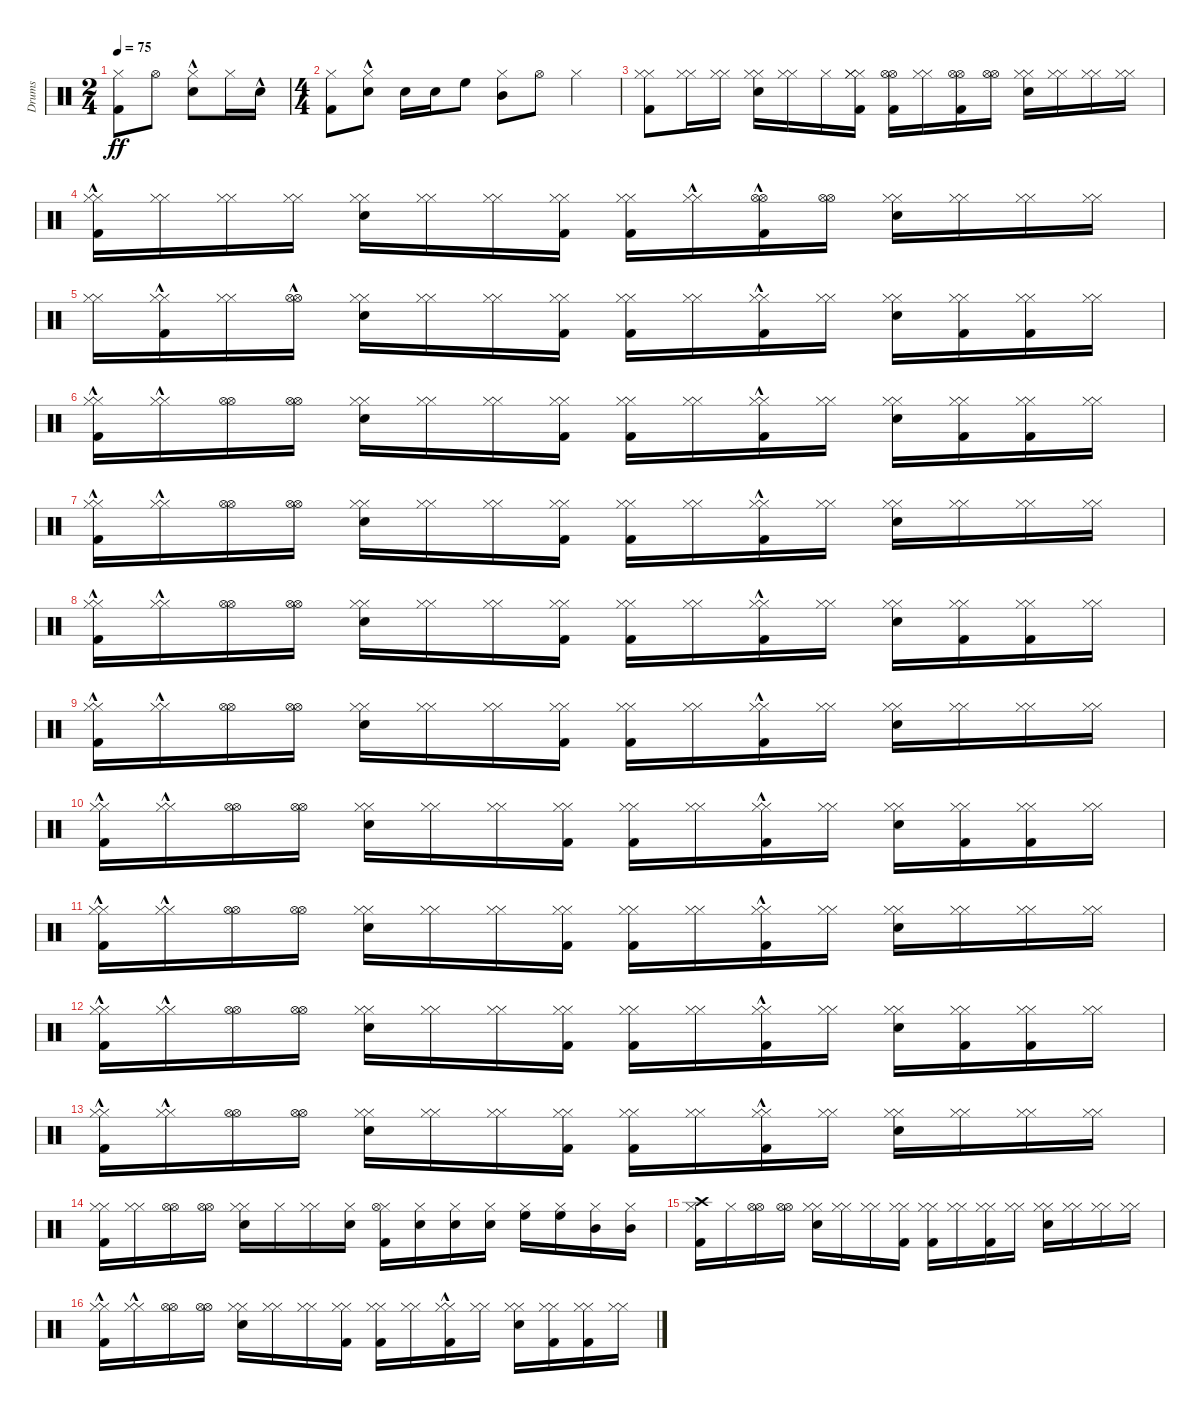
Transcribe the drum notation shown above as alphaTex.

\track ("Drums" "Drums") {instrument percussion}
\staff {score}
\articulation defaults
\ts (2 4)
\tempo 75
\clef neutral
\ks c
("Kick (hit) 2" "Hi-Hat (closed)").8{dy ff} "Hi-Hat (open)".8 ("Hi-Hat (closed)" "Snare (hit) 2"{hac}).8 "Hi-Hat (closed)".16 "Snare (hit) 2"{hac}.16 |
\ts (4 4)
("Kick (hit) 2" "Hi-Hat (closed)").8 ("Snare (hit) 2" "Hi-Hat (closed)"{hac}).8 "Snare (hit) 2".16 "Snare (hit) 2".16 "High Floor Tom (hit)".8 ("Mid Tom (hit)" "Hi-Hat (closed)").8 "Hi-Hat (open)".8 "Hi-Hat (closed)".4 |
("Hi-Hat (closed)" "Kick (hit) 2" "Hi-Hat (closed)").8 ("Hi-Hat (closed)" "Hi-Hat (closed)").16 ("Hi-Hat (closed)" "Hi-Hat (closed)").16 ("Hi-Hat (closed)" "Hi-Hat (closed)" "Snare (hit) 2").16 ("Hi-Hat (closed)" "Hi-Hat (closed)").16 "Hi-Hat (closed)".16 ("Hi-Hat (closed)" "Hi-Hat (closed)" "Kick (hit) 2" "Hi-Hat (closed)").16 ("Hi-Hat (open)" "Kick (hit) 2" "Hi-Hat (open)").16 ("Hi-Hat (closed)" "Hi-Hat (closed)").16 ("Hi-Hat (open)" "Kick (hit) 2" "Hi-Hat (open)").16 ("Hi-Hat (open)" "Hi-Hat (open)").16 ("Hi-Hat (closed)" "Snare (hit) 2" "Hi-Hat (closed)").16 ("Hi-Hat (closed)" "Hi-Hat (closed)").16 ("Hi-Hat (closed)" "Hi-Hat (closed)").16 ("Hi-Hat (closed)" "Hi-Hat (closed)").16 |
("Hi-Hat (closed)" "Kick (hit) 2"{hac} "Hi-Hat (closed)").16 ("Hi-Hat (closed)" "Hi-Hat (closed)").16 ("Hi-Hat (closed)" "Hi-Hat (closed)").16 ("Hi-Hat (closed)" "Hi-Hat (closed)").16 ("Hi-Hat (closed)" "Snare (hit) 2" "Hi-Hat (closed)").16 ("Hi-Hat (closed)" "Hi-Hat (closed)").16 ("Hi-Hat (closed)" "Hi-Hat (closed)").16 ("Hi-Hat (closed)" "Kick (hit) 2" "Hi-Hat (closed)").16 ("Hi-Hat (closed)" "Kick (hit) 2" "Hi-Hat (closed)").16 ("Hi-Hat (closed)"{hac} "Hi-Hat (closed)"{hac}).16 ("Kick (hit) 2"{hac} "Hi-Hat (open)" "Hi-Hat (open)").16 ("Hi-Hat (open)" "Hi-Hat (open)").16 ("Snare (hit) 2" "Hi-Hat (closed)" "Hi-Hat (closed)").16 ("Hi-Hat (closed)" "Hi-Hat (closed)").16 ("Hi-Hat (closed)" "Hi-Hat (closed)").16 ("Hi-Hat (closed)" "Hi-Hat (closed)").16 |
("Hi-Hat (closed)" "Hi-Hat (closed)").16 ("Hi-Hat (closed)" "Kick (hit) 2"{hac} "Hi-Hat (closed)").16 ("Hi-Hat (closed)" "Hi-Hat (closed)").16 ("Hi-Hat (open)"{hac} "Hi-Hat (open)"{hac}).16 ("Hi-Hat (closed)" "Snare (hit) 2" "Hi-Hat (closed)").16 ("Hi-Hat (closed)" "Hi-Hat (closed)").16 ("Hi-Hat (closed)" "Hi-Hat (closed)").16 ("Hi-Hat (closed)" "Kick (hit) 2" "Hi-Hat (closed)").16 ("Hi-Hat (closed)" "Kick (hit) 2" "Hi-Hat (closed)").16 ("Hi-Hat (closed)" "Hi-Hat (closed)").16 ("Hi-Hat (closed)" "Kick (hit) 2"{hac} "Hi-Hat (closed)").16 ("Hi-Hat (closed)" "Hi-Hat (closed)").16 ("Snare (hit) 2" "Hi-Hat (closed)" "Hi-Hat (closed)").16 ("Hi-Hat (closed)" "Kick (hit) 2" "Hi-Hat (closed)").16 ("Kick (hit) 2" "Hi-Hat (closed)" "Hi-Hat (closed)").16 ("Hi-Hat (closed)" "Hi-Hat (closed)").16 |
("Hi-Hat (closed)" "Kick (hit) 2"{hac} "Hi-Hat (closed)").16 ("Hi-Hat (closed)"{hac} "Hi-Hat (closed)"{hac}).16 ("Hi-Hat (open)" "Hi-Hat (open)").16 ("Hi-Hat (open)" "Hi-Hat (open)").16 ("Hi-Hat (closed)" "Snare (hit) 2" "Hi-Hat (closed)").16 ("Hi-Hat (closed)" "Hi-Hat (closed)").16 ("Hi-Hat (closed)" "Hi-Hat (closed)").16 ("Hi-Hat (closed)" "Kick (hit) 2" "Hi-Hat (closed)").16 ("Hi-Hat (closed)" "Kick (hit) 2" "Hi-Hat (closed)").16 ("Hi-Hat (closed)" "Hi-Hat (closed)").16 ("Hi-Hat (closed)" "Kick (hit) 2"{hac} "Hi-Hat (closed)").16 ("Hi-Hat (closed)" "Hi-Hat (closed)").16 ("Snare (hit) 2" "Hi-Hat (closed)" "Hi-Hat (closed)").16 ("Hi-Hat (closed)" "Kick (hit) 2" "Hi-Hat (closed)").16 ("Kick (hit) 2" "Hi-Hat (closed)" "Hi-Hat (closed)").16 ("Hi-Hat (closed)" "Hi-Hat (closed)").16 |
("Hi-Hat (closed)" "Kick (hit) 2"{hac} "Hi-Hat (closed)").16 ("Hi-Hat (closed)"{hac} "Hi-Hat (closed)"{hac}).16 ("Hi-Hat (open)" "Hi-Hat (open)").16 ("Hi-Hat (open)" "Hi-Hat (open)").16 ("Hi-Hat (closed)" "Snare (hit) 2" "Hi-Hat (closed)").16 ("Hi-Hat (closed)" "Hi-Hat (closed)").16 ("Hi-Hat (closed)" "Hi-Hat (closed)").16 ("Hi-Hat (closed)" "Kick (hit) 2" "Hi-Hat (closed)").16 ("Hi-Hat (closed)" "Kick (hit) 2" "Hi-Hat (closed)").16 ("Hi-Hat (closed)" "Hi-Hat (closed)").16 ("Kick (hit) 2"{hac} "Hi-Hat (closed)" "Hi-Hat (closed)").16 ("Hi-Hat (closed)" "Hi-Hat (closed)").16 ("Snare (hit) 2" "Hi-Hat (closed)" "Hi-Hat (closed)").16 ("Hi-Hat (closed)" "Hi-Hat (closed)").16 ("Hi-Hat (closed)" "Hi-Hat (closed)").16 ("Hi-Hat (closed)" "Hi-Hat (closed)").16 |
("Hi-Hat (closed)" "Kick (hit) 2"{hac} "Hi-Hat (closed)").16 ("Hi-Hat (closed)"{hac} "Hi-Hat (closed)"{hac}).16 ("Hi-Hat (open)" "Hi-Hat (open)").16 ("Hi-Hat (open)" "Hi-Hat (open)").16 ("Hi-Hat (closed)" "Snare (hit) 2" "Hi-Hat (closed)").16 ("Hi-Hat (closed)" "Hi-Hat (closed)").16 ("Hi-Hat (closed)" "Hi-Hat (closed)").16 ("Hi-Hat (closed)" "Kick (hit) 2" "Hi-Hat (closed)").16 ("Hi-Hat (closed)" "Kick (hit) 2" "Hi-Hat (closed)").16 ("Hi-Hat (closed)" "Hi-Hat (closed)").16 ("Hi-Hat (closed)" "Kick (hit) 2"{hac} "Hi-Hat (closed)").16 ("Hi-Hat (closed)" "Hi-Hat (closed)").16 ("Snare (hit) 2" "Hi-Hat (closed)" "Hi-Hat (closed)").16 ("Hi-Hat (closed)" "Kick (hit) 2" "Hi-Hat (closed)").16 ("Kick (hit) 2" "Hi-Hat (closed)" "Hi-Hat (closed)").16 ("Hi-Hat (closed)" "Hi-Hat (closed)").16 |
("Hi-Hat (closed)" "Kick (hit) 2"{hac} "Hi-Hat (closed)").16 ("Hi-Hat (closed)"{hac} "Hi-Hat (closed)"{hac}).16 ("Hi-Hat (open)" "Hi-Hat (open)").16 ("Hi-Hat (open)" "Hi-Hat (open)").16 ("Hi-Hat (closed)" "Snare (hit) 2" "Hi-Hat (closed)").16 ("Hi-Hat (closed)" "Hi-Hat (closed)").16 ("Hi-Hat (closed)" "Hi-Hat (closed)").16 ("Hi-Hat (closed)" "Kick (hit) 2" "Hi-Hat (closed)").16 ("Hi-Hat (closed)" "Kick (hit) 2" "Hi-Hat (closed)").16 ("Hi-Hat (closed)" "Hi-Hat (closed)").16 ("Kick (hit) 2"{hac} "Hi-Hat (closed)" "Hi-Hat (closed)").16 ("Hi-Hat (closed)" "Hi-Hat (closed)").16 ("Snare (hit) 2" "Hi-Hat (closed)" "Hi-Hat (closed)").16 ("Hi-Hat (closed)" "Hi-Hat (closed)").16 ("Hi-Hat (closed)" "Hi-Hat (closed)").16 ("Hi-Hat (closed)" "Hi-Hat (closed)").16 |
("Hi-Hat (closed)" "Kick (hit) 2"{hac} "Hi-Hat (closed)").16 ("Hi-Hat (closed)"{hac} "Hi-Hat (closed)"{hac}).16 ("Hi-Hat (open)" "Hi-Hat (open)").16 ("Hi-Hat (open)" "Hi-Hat (open)").16 ("Hi-Hat (closed)" "Snare (hit) 2" "Hi-Hat (closed)").16 ("Hi-Hat (closed)" "Hi-Hat (closed)").16 ("Hi-Hat (closed)" "Hi-Hat (closed)").16 ("Hi-Hat (closed)" "Kick (hit) 2" "Hi-Hat (closed)").16 ("Hi-Hat (closed)" "Kick (hit) 2" "Hi-Hat (closed)").16 ("Hi-Hat (closed)" "Hi-Hat (closed)").16 ("Hi-Hat (closed)" "Kick (hit) 2"{hac} "Hi-Hat (closed)").16 ("Hi-Hat (closed)" "Hi-Hat (closed)").16 ("Snare (hit) 2" "Hi-Hat (closed)" "Hi-Hat (closed)").16 ("Hi-Hat (closed)" "Kick (hit) 2" "Hi-Hat (closed)").16 ("Kick (hit) 2" "Hi-Hat (closed)" "Hi-Hat (closed)").16 ("Hi-Hat (closed)" "Hi-Hat (closed)").16 |
("Hi-Hat (closed)" "Kick (hit) 2"{hac} "Hi-Hat (closed)").16 ("Hi-Hat (closed)"{hac} "Hi-Hat (closed)"{hac}).16 ("Hi-Hat (open)" "Hi-Hat (open)").16 ("Hi-Hat (open)" "Hi-Hat (open)").16 ("Hi-Hat (closed)" "Snare (hit) 2" "Hi-Hat (closed)").16 ("Hi-Hat (closed)" "Hi-Hat (closed)").16 ("Hi-Hat (closed)" "Hi-Hat (closed)").16 ("Hi-Hat (closed)" "Kick (hit) 2" "Hi-Hat (closed)").16 ("Hi-Hat (closed)" "Kick (hit) 2" "Hi-Hat (closed)").16 ("Hi-Hat (closed)" "Hi-Hat (closed)").16 ("Kick (hit) 2"{hac} "Hi-Hat (closed)" "Hi-Hat (closed)").16 ("Hi-Hat (closed)" "Hi-Hat (closed)").16 ("Snare (hit) 2" "Hi-Hat (closed)" "Hi-Hat (closed)").16 ("Hi-Hat (closed)" "Hi-Hat (closed)").16 ("Hi-Hat (closed)" "Hi-Hat (closed)").16 ("Hi-Hat (closed)" "Hi-Hat (closed)").16 |
("Hi-Hat (closed)" "Kick (hit) 2"{hac} "Hi-Hat (closed)").16 ("Hi-Hat (closed)"{hac} "Hi-Hat (closed)"{hac}).16 ("Hi-Hat (open)" "Hi-Hat (open)").16 ("Hi-Hat (open)" "Hi-Hat (open)").16 ("Hi-Hat (closed)" "Snare (hit) 2" "Hi-Hat (closed)").16 ("Hi-Hat (closed)" "Hi-Hat (closed)").16 ("Hi-Hat (closed)" "Hi-Hat (closed)").16 ("Hi-Hat (closed)" "Kick (hit) 2" "Hi-Hat (closed)").16 ("Hi-Hat (closed)" "Kick (hit) 2" "Hi-Hat (closed)").16 ("Hi-Hat (closed)" "Hi-Hat (closed)").16 ("Hi-Hat (closed)" "Kick (hit) 2"{hac} "Hi-Hat (closed)").16 ("Hi-Hat (closed)" "Hi-Hat (closed)").16 ("Snare (hit) 2" "Hi-Hat (closed)" "Hi-Hat (closed)").16 ("Hi-Hat (closed)" "Kick (hit) 2" "Hi-Hat (closed)").16 ("Kick (hit) 2" "Hi-Hat (closed)" "Hi-Hat (closed)").16 ("Hi-Hat (closed)" "Hi-Hat (closed)").16 |
("Hi-Hat (closed)" "Kick (hit) 2"{hac} "Hi-Hat (closed)").16 ("Hi-Hat (closed)"{hac} "Hi-Hat (closed)"{hac}).16 ("Hi-Hat (open)" "Hi-Hat (open)").16 ("Hi-Hat (open)" "Hi-Hat (open)").16 ("Hi-Hat (closed)" "Snare (hit) 2" "Hi-Hat (closed)").16 ("Hi-Hat (closed)" "Hi-Hat (closed)").16 ("Hi-Hat (closed)" "Hi-Hat (closed)").16 ("Hi-Hat (closed)" "Kick (hit) 2" "Hi-Hat (closed)").16 ("Hi-Hat (closed)" "Kick (hit) 2" "Hi-Hat (closed)").16 ("Hi-Hat (closed)" "Hi-Hat (closed)").16 ("Kick (hit) 2"{hac} "Hi-Hat (closed)" "Hi-Hat (closed)").16 ("Hi-Hat (closed)" "Hi-Hat (closed)").16 ("Snare (hit) 2" "Hi-Hat (closed)" "Hi-Hat (closed)").16 ("Hi-Hat (closed)" "Hi-Hat (closed)").16 ("Hi-Hat (closed)" "Hi-Hat (closed)").16 ("Hi-Hat (closed)" "Hi-Hat (closed)").16 |
("Hi-Hat (closed)" "Kick (hit) 2" "Hi-Hat (closed)").16 ("Hi-Hat (closed)" "Hi-Hat (closed)").16 ("Hi-Hat (open)" "Hi-Hat (open)").16 ("Hi-Hat (open)" "Hi-Hat (open)").16 ("Hi-Hat (closed)" "Snare (hit) 2" "Hi-Hat (closed)").16 "Hi-Hat (closed)".16 ("Hi-Hat (closed)" "Hi-Hat (closed)").16 ("Snare (hit) 2" "Hi-Hat (closed)").16 ("Hi-Hat (closed)" "Kick (hit) 2" "Hi-Hat (open)").16 ("Snare (hit) 2" "Hi-Hat (closed)").16 ("Snare (hit) 2" "Hi-Hat (closed)").16 ("Snare (hit) 2" "Hi-Hat (closed)").16 ("Hi-Hat (closed)" "High Floor Tom (hit)").16 ("Hi-Hat (closed)" "High Floor Tom (hit)").16 ("Hi-Hat (closed)" "Mid Tom (hit)").16 ("Mid Tom (hit)" "Hi-Hat (closed)").16 |
("Hi-Hat (closed)" "Kick (hit) 2" "Crash high (hit)").16 "Hi-Hat (closed)".16 ("Hi-Hat (open)" "Hi-Hat (open)").16 ("Hi-Hat (open)" "Hi-Hat (open)").16 ("Hi-Hat (closed)" "Snare (hit) 2" "Hi-Hat (closed)").16 ("Hi-Hat (closed)" "Hi-Hat (closed)").16 ("Hi-Hat (closed)" "Hi-Hat (closed)").16 ("Hi-Hat (closed)" "Kick (hit) 2" "Hi-Hat (closed)").16 ("Hi-Hat (closed)" "Hi-Hat (closed)" "Kick (hit) 2").16 ("Hi-Hat (closed)" "Hi-Hat (closed)").16 ("Hi-Hat (closed)" "Kick (hit) 2" "Hi-Hat (closed)").16 ("Hi-Hat (closed)" "Hi-Hat (closed)").16 ("Hi-Hat (closed)" "Snare (hit) 2" "Hi-Hat (closed)").16 ("Hi-Hat (closed)" "Hi-Hat (closed)").16 ("Hi-Hat (closed)" "Hi-Hat (closed)").16 ("Hi-Hat (closed)" "Hi-Hat (closed)").16 |
("Hi-Hat (closed)" "Kick (hit) 2"{hac} "Hi-Hat (closed)").16 ("Hi-Hat (closed)"{hac} "Hi-Hat (closed)"{hac}).16 ("Hi-Hat (open)" "Hi-Hat (open)").16 ("Hi-Hat (open)" "Hi-Hat (open)").16 ("Hi-Hat (closed)" "Snare (hit) 2" "Hi-Hat (closed)").16 ("Hi-Hat (closed)" "Hi-Hat (closed)").16 ("Hi-Hat (closed)" "Hi-Hat (closed)").16 ("Hi-Hat (closed)" "Kick (hit) 2" "Hi-Hat (closed)").16 ("Hi-Hat (closed)" "Kick (hit) 2" "Hi-Hat (closed)").16 ("Hi-Hat (closed)" "Hi-Hat (closed)").16 ("Hi-Hat (closed)" "Kick (hit) 2"{hac} "Hi-Hat (closed)").16 ("Hi-Hat (closed)" "Hi-Hat (closed)").16 ("Snare (hit) 2" "Hi-Hat (closed)" "Hi-Hat (closed)").16 ("Hi-Hat (closed)" "Kick (hit) 2" "Hi-Hat (closed)").16 ("Kick (hit) 2" "Hi-Hat (closed)" "Hi-Hat (closed)").16 ("Hi-Hat (closed)" "Hi-Hat (closed)").16
